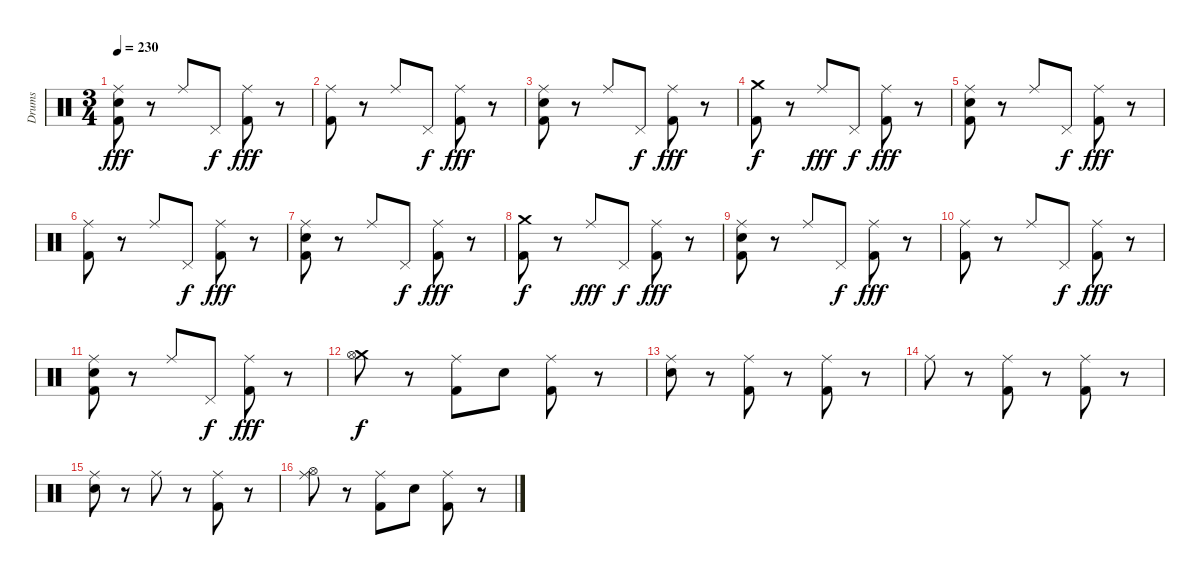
\track ("Drums" "Drums") {instrument percussion}
\staff {score}
\articulation defaults
\ts (3 4)
\tempo 230
\clef neutral
\ks c
("Ride (middle)" "Electric Snare (hit)" "Kick (hit) 2").8{dy fff} r.8 "Ride (middle)".8 "Pedal Hi-Hat (hit)".8{dy f} ("Ride (middle)" "Kick (hit) 2").8{dy fff} r.8 |
("Ride (middle)" "Kick (hit) 2").8 r.8 "Ride (middle)".8 "Pedal Hi-Hat (hit)".8{dy f} ("Ride (middle)" "Kick (hit) 2").8{dy fff} r.8 |
("Ride (middle)" "Electric Snare (hit)" "Kick (hit) 2").8 r.8 "Ride (middle)".8 "Pedal Hi-Hat (hit)".8{dy f} ("Ride (middle)" "Kick (hit) 2").8{dy fff} r.8 |
("Crash medium (hit)" "Kick (hit) 2").8{dy f} r.8 "Ride (middle)".8{dy fff} "Pedal Hi-Hat (hit)".8{dy f} ("Ride (middle)" "Kick (hit) 2").8{dy fff} r.8 |
("Ride (middle)" "Electric Snare (hit)" "Kick (hit) 2").8 r.8 "Ride (middle)".8 "Pedal Hi-Hat (hit)".8{dy f} ("Ride (middle)" "Kick (hit) 2").8{dy fff} r.8 |
("Ride (middle)" "Kick (hit) 2").8 r.8 "Ride (middle)".8 "Pedal Hi-Hat (hit)".8{dy f} ("Ride (middle)" "Kick (hit) 2").8{dy fff} r.8 |
("Ride (middle)" "Electric Snare (hit)" "Kick (hit) 2").8 r.8 "Ride (middle)".8 "Pedal Hi-Hat (hit)".8{dy f} ("Ride (middle)" "Kick (hit) 2").8{dy fff} r.8 |
("Crash medium (hit)" "Kick (hit) 2").8{dy f} r.8 "Ride (middle)".8{dy fff} "Pedal Hi-Hat (hit)".8{dy f} ("Ride (middle)" "Kick (hit) 2").8{dy fff} r.8 |
("Ride (middle)" "Electric Snare (hit)" "Kick (hit) 2").8 r.8 "Ride (middle)".8 "Pedal Hi-Hat (hit)".8{dy f} ("Ride (middle)" "Kick (hit) 2").8{dy fff} r.8 |
("Ride (middle)" "Kick (hit) 2").8 r.8 "Ride (middle)".8 "Pedal Hi-Hat (hit)".8{dy f} ("Ride (middle)" "Kick (hit) 2").8{dy fff} r.8 |
("Ride (middle)" "Electric Snare (hit)" "Kick (hit) 2").8 r.8 "Ride (middle)".8 "Pedal Hi-Hat (hit)".8{dy f} ("Ride (middle)" "Kick (hit) 2").8{dy fff} r.8 |
("Crash medium (hit)" "Hi-Hat (open)").8{dy f} r.8 ("Ride (middle)" "Kick (hit) 2").8 "Electric Snare (hit)".8 ("Ride (middle)" "Kick (hit) 2").8 r.8 |
("Ride (middle)" "Electric Snare (hit)").8 r.8 ("Ride (middle)" "Kick (hit) 2").8 r.8 ("Ride (middle)" "Kick (hit) 2").8 r.8 |
"Ride (middle)".8 r.8 ("Ride (middle)" "Kick (hit) 2").8 r.8 ("Ride (middle)" "Kick (hit) 2").8 r.8 |
("Ride (middle)" "Electric Snare (hit)").8 r.8 "Ride (middle)".8 r.8 ("Ride (middle)" "Kick (hit) 2").8 r.8 |
("Ride (middle)" "Hi-Hat (open)").8 r.8 ("Ride (middle)" "Kick (hit) 2").8 "Electric Snare (hit)".8 ("Ride (middle)" "Kick (hit) 2").8 r.8
